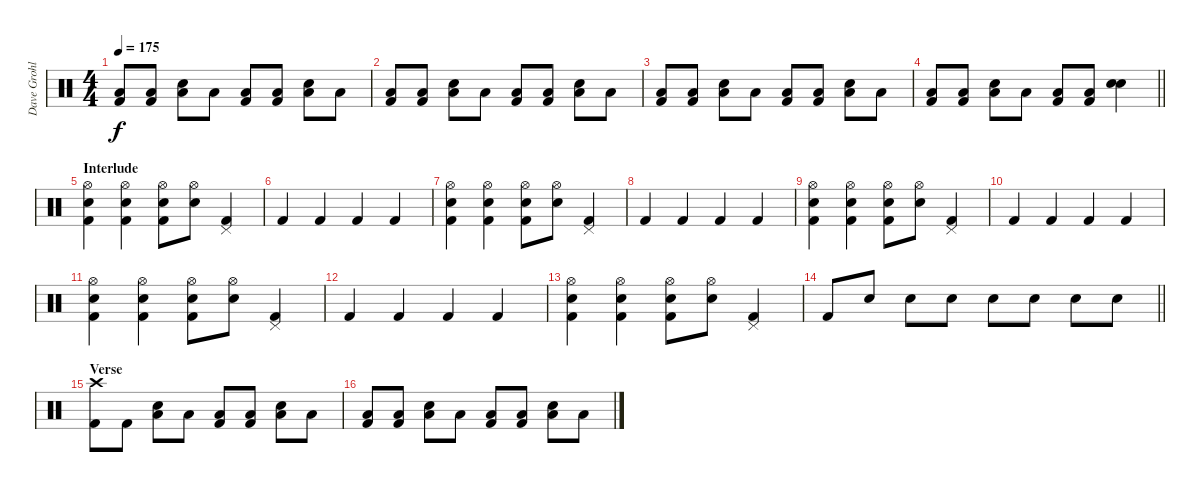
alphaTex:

\track ("Dave Grohl" "Dave Grohl") {solo instrument percussion}
\staff {score}
\articulation defaults
\ts (4 4)
\tempo 175
\clef neutral
\ks c
("Low Tom (hit)" "Kick (hit) 2").8{dy f} ("Low Tom (hit)" "Kick (hit) 2").8 ("Electric Snare (hit)" "Low Tom (hit)").8 "Low Tom (hit)".8 ("Low Tom (hit)" "Kick (hit) 2").8 ("Low Tom (hit)" "Kick (hit) 2").8 ("Electric Snare (hit)" "Low Tom (hit)").8 "Low Tom (hit)".8 |
("Low Tom (hit)" "Kick (hit) 2").8 ("Low Tom (hit)" "Kick (hit) 2").8 ("Electric Snare (hit)" "Low Tom (hit)").8 "Low Tom (hit)".8 ("Low Tom (hit)" "Kick (hit) 2").8 ("Low Tom (hit)" "Kick (hit) 2").8 ("Electric Snare (hit)" "Low Tom (hit)").8 "Low Tom (hit)".8 |
("Low Tom (hit)" "Kick (hit) 2").8 ("Low Tom (hit)" "Kick (hit) 2").8 ("Electric Snare (hit)" "Low Tom (hit)").8 "Low Tom (hit)".8 ("Low Tom (hit)" "Kick (hit) 2").8 ("Low Tom (hit)" "Kick (hit) 2").8 ("Electric Snare (hit)" "Low Tom (hit)").8 "Low Tom (hit)".8 |
\barLineRight lightlight
("Low Tom (hit)" "Kick (hit) 2").8 ("Low Tom (hit)" "Kick (hit) 2").8 ("Electric Snare (hit)" "Low Tom (hit)").8 "Low Tom (hit)".8 ("Low Tom (hit)" "Kick (hit) 2").8 ("Low Tom (hit)" "Kick (hit) 2").8 ("Electric Snare (hit)" "Electric Snare (hit)").4 |
\section ("" "Interlude")
("Hi-Hat (open)" "Electric Snare (hit)" "Kick (hit) 2").4 ("Hi-Hat (open)" "Electric Snare (hit)" "Kick (hit) 2").4 ("Hi-Hat (open)" "Electric Snare (hit)" "Kick (hit) 2").8 ("Hi-Hat (open)" "Electric Snare (hit)").8 ("Pedal Hi-Hat (hit)" "Kick (hit) 2").4 |
"Kick (hit) 2".4 "Kick (hit) 2".4 "Kick (hit) 2".4 "Kick (hit) 2".4 |
("Hi-Hat (open)" "Electric Snare (hit)" "Kick (hit) 2").4 ("Hi-Hat (open)" "Electric Snare (hit)" "Kick (hit) 2").4 ("Hi-Hat (open)" "Electric Snare (hit)" "Kick (hit) 2").8 ("Hi-Hat (open)" "Electric Snare (hit)").8 ("Pedal Hi-Hat (hit)" "Kick (hit) 2").4 |
"Kick (hit) 2".4 "Kick (hit) 2".4 "Kick (hit) 2".4 "Kick (hit) 2".4 |
("Hi-Hat (open)" "Electric Snare (hit)" "Kick (hit) 2").4 ("Hi-Hat (open)" "Electric Snare (hit)" "Kick (hit) 2").4 ("Hi-Hat (open)" "Electric Snare (hit)" "Kick (hit) 2").8 ("Hi-Hat (open)" "Electric Snare (hit)").8 ("Pedal Hi-Hat (hit)" "Kick (hit) 2").4 |
"Kick (hit) 2".4 "Kick (hit) 2".4 "Kick (hit) 2".4 "Kick (hit) 2".4 |
("Hi-Hat (open)" "Electric Snare (hit)" "Kick (hit) 2").4 ("Hi-Hat (open)" "Electric Snare (hit)" "Kick (hit) 2").4 ("Hi-Hat (open)" "Electric Snare (hit)" "Kick (hit) 2").8 ("Hi-Hat (open)" "Electric Snare (hit)").8 ("Pedal Hi-Hat (hit)" "Kick (hit) 2").4 |
"Kick (hit) 2".4 "Kick (hit) 2".4 "Kick (hit) 2".4 "Kick (hit) 2".4 |
("Hi-Hat (open)" "Electric Snare (hit)" "Kick (hit) 2").4 ("Hi-Hat (open)" "Electric Snare (hit)" "Kick (hit) 2").4 ("Hi-Hat (open)" "Electric Snare (hit)" "Kick (hit) 2").8 ("Hi-Hat (open)" "Electric Snare (hit)").8 ("Pedal Hi-Hat (hit)" "Kick (hit) 2").4 |
\barLineRight lightlight "Kick (hit) 2".8 "Electric Snare (hit)".8 "Electric Snare (hit)".8 "Electric Snare (hit)".8 "Electric Snare (hit)".8 "Electric Snare (hit)".8 "Electric Snare (hit)".8 "Electric Snare (hit)".8
|
\section ("" "Verse")
("Crash high (hit)" "Kick (hit) 2").8 "Kick (hit) 2".8 ("Electric Snare (hit)" "Low Tom (hit)").8 "Low Tom (hit)".8 ("Low Tom (hit)" "Kick (hit) 2").8 ("Low Tom (hit)" "Kick (hit) 2").8 ("Electric Snare (hit)" "Low Tom (hit)").8 "Low Tom (hit)".8 |
("Low Tom (hit)" "Kick (hit) 2").8 ("Low Tom (hit)" "Kick (hit) 2").8 ("Electric Snare (hit)" "Low Tom (hit)").8 "Low Tom (hit)".8 ("Low Tom (hit)" "Kick (hit) 2").8 ("Low Tom (hit)" "Kick (hit) 2").8 ("Electric Snare (hit)" "Low Tom (hit)").8 "Low Tom (hit)".8
